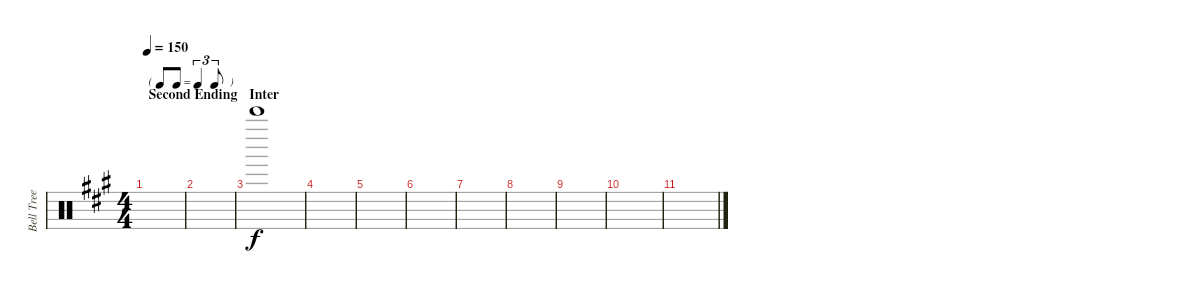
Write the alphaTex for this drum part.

\track ("Bell Tree" "Bell Tree") {instrument percussion}
\staff {score}
\articulation defaults
\ts (4 4)
\tf triplet8th
\section ("" "Second Ending")
\tempo 150
\clef neutral
\ks a
|
|
\section ("" "Inter")
"Bell Tree (hit)".1 |
|
|
|
|
|
|
|
\section ("" "")
